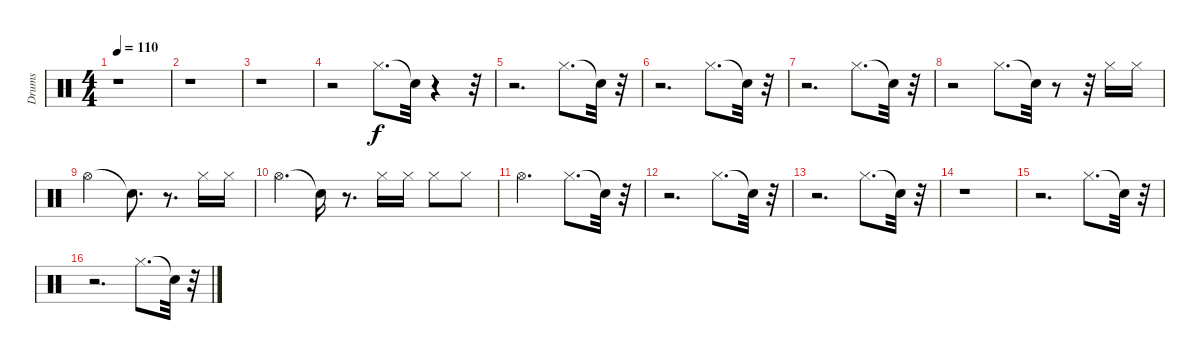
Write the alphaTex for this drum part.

\track ("Drums" "Drums") {instrument percussion}
\staff {score}
\articulation defaults
\ts (4 4)
\tempo 110
\clef neutral
\ks c
r.1{dy f} |
r.1 |
r.1 |
r.2 "Hi-Hat (closed)".8{d} "Snare (hit)"{t}.32 r.4 r.32 |
r.2{d} "Hi-Hat (closed)".8{d} "Snare (hit)"{t}.32 r.32 |
r.2{d} "Hi-Hat (closed)".8{d} "Snare (hit)"{t}.32 r.32 |
r.2{d} "Hi-Hat (closed)".8{d} "Snare (hit)"{t}.32 r.32 |
r.2 "Hi-Hat (closed)".8{d} "Snare (hit)"{t}.32 r.8 r.32 "Hi-Hat (closed)".16 "Hi-Hat (closed)".16 |
"Hi-Hat (open)".2 "Snare (hit)"{t}.8{d} r.8{d} "Hi-Hat (closed)".16 "Hi-Hat (closed)".16 |
"Hi-Hat (open)".4{d} "Snare (hit)"{t}.16 r.8{d} "Hi-Hat (closed)".16 "Hi-Hat (closed)".16 "Hi-Hat (closed)".8 "Hi-Hat (closed)".8 |
"Hi-Hat (open)".2{d} "Hi-Hat (closed)".8{d} "Snare (hit)"{t}.32 r.32 |
r.2{d} "Hi-Hat (closed)".8{d} "Snare (hit)"{t}.32 r.32 |
r.2{d} "Hi-Hat (closed)".8{d} "Snare (hit)"{t}.32 r.32 |
r.1 |
r.2{d} "Hi-Hat (closed)".8{d} "Snare (hit)"{t}.32 r.32 |
r.2{d} "Hi-Hat (closed)".8{d} "Snare (hit)"{t}.32 r.32
